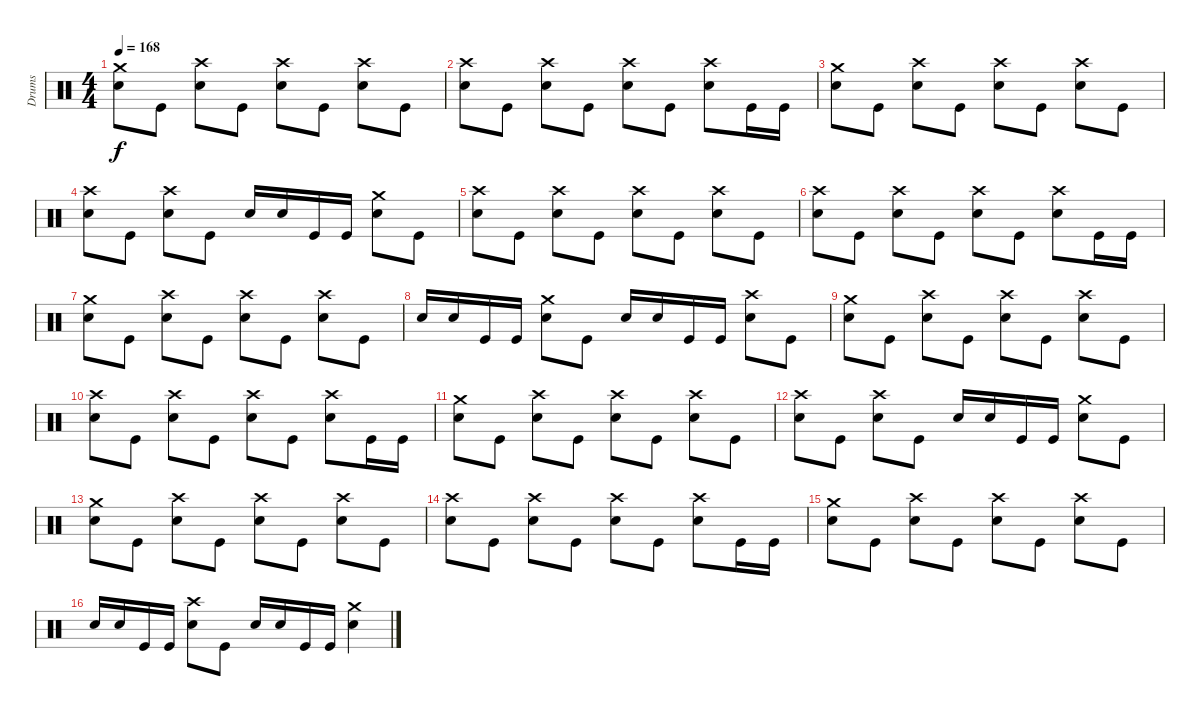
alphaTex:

\track ("Drums" "Drums") {instrument percussion}
\staff {score}
\articulation defaults
\ts (4 4)
\tempo 168
\clef neutral
\ks c
("Crash medium (hit)" "Snare (hit) 2").8{dy f} "Kick (hit)".8 ("Crash high (hit)" "Snare (hit) 2").8 "Kick (hit)".8 ("Crash high (hit)" "Snare (hit) 2").8 "Kick (hit)".8 ("Crash high (hit)" "Snare (hit) 2").8 "Kick (hit)".8 |
("Crash high (hit)" "Snare (hit) 2").8 "Kick (hit)".8 ("Crash high (hit)" "Snare (hit) 2").8 "Kick (hit)".8 ("Crash high (hit)" "Snare (hit) 2").8 "Kick (hit)".8 ("Crash high (hit)" "Snare (hit) 2").8 "Kick (hit)".16 "Kick (hit)".16 |
("Crash medium (hit)" "Snare (hit) 2").8 "Kick (hit)".8 ("Crash high (hit)" "Snare (hit) 2").8 "Kick (hit)".8 ("Crash high (hit)" "Snare (hit) 2").8 "Kick (hit)".8 ("Crash high (hit)" "Snare (hit) 2").8 "Kick (hit)".8 |
("Crash high (hit)" "Snare (hit) 2").8 "Kick (hit)".8 ("Crash high (hit)" "Snare (hit) 2").8 "Kick (hit)".8 "Snare (hit) 2".16 "Snare (hit) 2".16 "Kick (hit)".16 "Kick (hit)".16 ("Crash medium (hit)" "Snare (hit) 2").8 "Kick (hit)".8 |
("Crash high (hit)" "Snare (hit) 2").8 "Kick (hit)".8 ("Crash high (hit)" "Snare (hit) 2").8 "Kick (hit)".8 ("Crash high (hit)" "Snare (hit) 2").8 "Kick (hit)".8 ("Crash high (hit)" "Snare (hit) 2").8 "Kick (hit)".8 |
("Crash high (hit)" "Snare (hit) 2").8 "Kick (hit)".8 ("Crash high (hit)" "Snare (hit) 2").8 "Kick (hit)".8 ("Crash high (hit)" "Snare (hit) 2").8 "Kick (hit)".8 ("Crash high (hit)" "Snare (hit) 2").8 "Kick (hit)".16 "Kick (hit)".16 |
("Crash medium (hit)" "Snare (hit) 2").8 "Kick (hit)".8 ("Crash high (hit)" "Snare (hit) 2").8 "Kick (hit)".8 ("Crash high (hit)" "Snare (hit) 2").8 "Kick (hit)".8 ("Crash high (hit)" "Snare (hit) 2").8 "Kick (hit)".8 |
"Snare (hit) 2".16 "Snare (hit) 2".16 "Kick (hit)".16 "Kick (hit)".16 ("Crash medium (hit)" "Snare (hit) 2").8 "Kick (hit)".8 "Snare (hit) 2".16 "Snare (hit) 2".16 "Kick (hit)".16 "Kick (hit)".16 ("Crash high (hit)" "Snare (hit) 2").8 "Kick (hit)".8 |
("Crash medium (hit)" "Snare (hit) 2").8 "Kick (hit)".8 ("Crash high (hit)" "Snare (hit) 2").8 "Kick (hit)".8 ("Crash high (hit)" "Snare (hit) 2").8 "Kick (hit)".8 ("Crash high (hit)" "Snare (hit) 2").8 "Kick (hit)".8 |
("Crash high (hit)" "Snare (hit) 2").8 "Kick (hit)".8 ("Crash high (hit)" "Snare (hit) 2").8 "Kick (hit)".8 ("Crash high (hit)" "Snare (hit) 2").8 "Kick (hit)".8 ("Crash high (hit)" "Snare (hit) 2").8 "Kick (hit)".16 "Kick (hit)".16 |
("Crash medium (hit)" "Snare (hit) 2").8 "Kick (hit)".8 ("Crash high (hit)" "Snare (hit) 2").8 "Kick (hit)".8 ("Crash high (hit)" "Snare (hit) 2").8 "Kick (hit)".8 ("Crash high (hit)" "Snare (hit) 2").8 "Kick (hit)".8 |
("Crash high (hit)" "Snare (hit) 2").8 "Kick (hit)".8 ("Crash high (hit)" "Snare (hit) 2").8 "Kick (hit)".8 "Snare (hit) 2".16 "Snare (hit) 2".16 "Kick (hit)".16 "Kick (hit)".16 ("Crash medium (hit)" "Snare (hit) 2").8 "Kick (hit)".8 |
("Crash medium (hit)" "Snare (hit) 2").8 "Kick (hit)".8 ("Crash high (hit)" "Snare (hit) 2").8 "Kick (hit)".8 ("Crash high (hit)" "Snare (hit) 2").8 "Kick (hit)".8 ("Crash high (hit)" "Snare (hit) 2").8 "Kick (hit)".8 |
("Crash high (hit)" "Snare (hit) 2").8 "Kick (hit)".8 ("Crash high (hit)" "Snare (hit) 2").8 "Kick (hit)".8 ("Crash high (hit)" "Snare (hit) 2").8 "Kick (hit)".8 ("Crash high (hit)" "Snare (hit) 2").8 "Kick (hit)".16 "Kick (hit)".16 |
("Crash medium (hit)" "Snare (hit) 2").8 "Kick (hit)".8 ("Crash high (hit)" "Snare (hit) 2").8 "Kick (hit)".8 ("Crash high (hit)" "Snare (hit) 2").8 "Kick (hit)".8 ("Crash high (hit)" "Snare (hit) 2").8 "Kick (hit)".8 |
"Snare (hit) 2".16 "Snare (hit) 2".16 "Kick (hit)".16 "Kick (hit)".16 ("Crash high (hit)" "Snare (hit) 2").8 "Kick (hit)".8 "Snare (hit) 2".16 "Snare (hit) 2".16 "Kick (hit)".16 "Kick (hit)".16 ("Crash medium (hit)" "Snare (hit) 2").4
